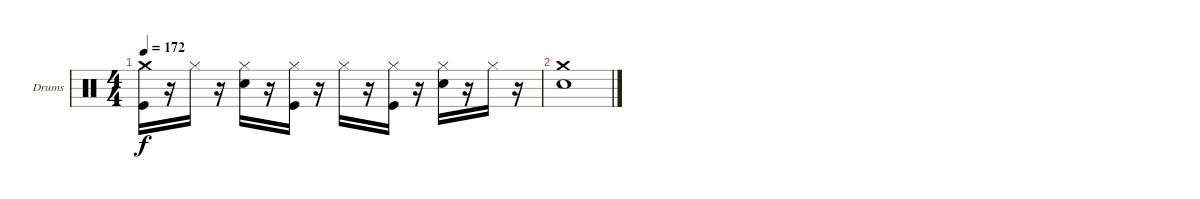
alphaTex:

\bracketExtendMode groupsimilarinstruments
\firstSystemTrackNameOrientation horizontal
\otherSystemsTrackNameOrientation horizontal
\track ("Drumkit" "Drums") {instrument percussion}
\staff {score}
\articulation defaults
\ts (4 4)
\tempo 172
\clef neutral
\ks c
("Kick (hit)" "Crash medium (hit)").16{dy f} r.16 "Hi-Hat (closed)".16 r.16 ("Snare (hit) 2" "Hi-Hat (closed)").16 r.16 ("Kick (hit)" "Hi-Hat (closed)").16 r.16 "Hi-Hat (closed)".16 r.16 ("Kick (hit)" "Hi-Hat (closed)").16 r.16 ("Snare (hit) 2" "Hi-Hat (closed)").16 r.16 "Hi-Hat (closed)".16 r.16 |
("Snare (hit) 2" "Crash medium (hit)").1
